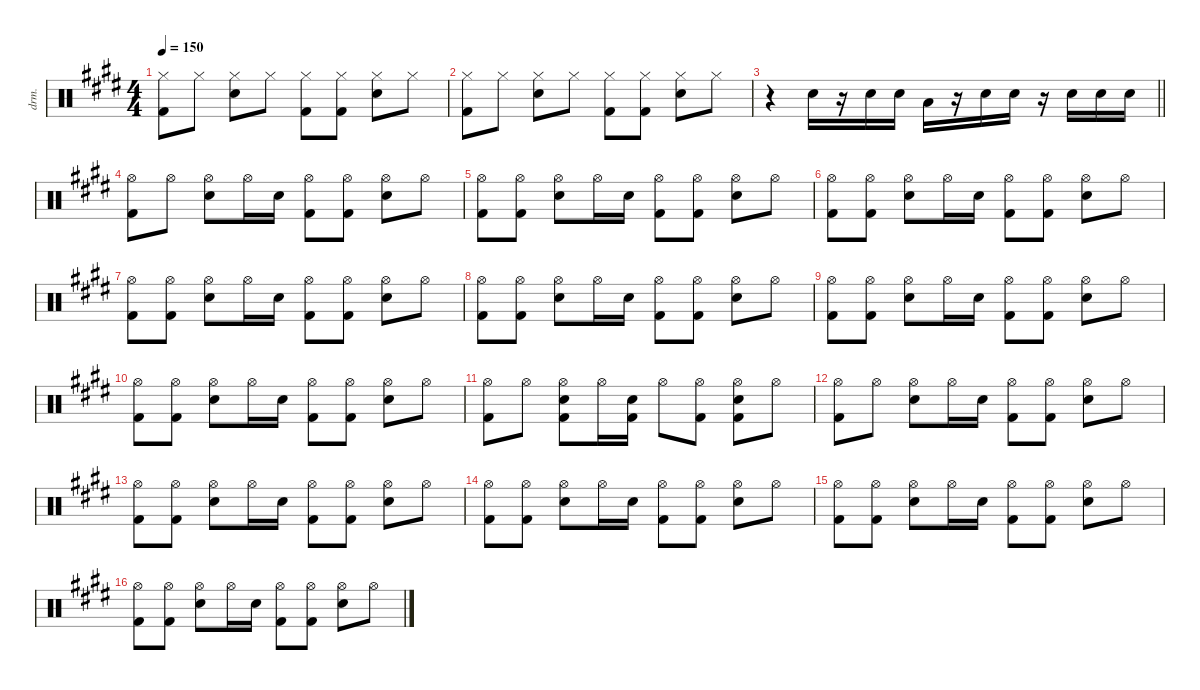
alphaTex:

\defaultSystemsLayout 4
\hideDynamics
\bracketExtendMode nobrackets
\track (" (Drums)" "drm.") {instrument percussion}
\staff {score}
\articulation defaults
\ts (4 4)
\tempo 150
\clef neutral
\ks c#minor
("Hi-Hat (closed)"{acc forcenatural} "Kick (hit) 2"{acc forcenatural}).8{dy f} "Hi-Hat (closed)"{acc forcenatural}.8 ("Hi-Hat (closed)"{acc forcenatural} "Snare (hit) 2"{acc forcenatural}).8 "Hi-Hat (closed)"{acc forcenatural}.8 ("Hi-Hat (closed)"{acc forcenatural} "Kick (hit) 2"{acc forcenatural}).8 ("Hi-Hat (closed)"{acc forcenatural} "Kick (hit) 2"{acc forcenatural}).8 ("Hi-Hat (closed)"{acc forcenatural} "Snare (hit) 2"{acc forcenatural}).8 "Hi-Hat (closed)"{acc forcenatural}.8 |
("Hi-Hat (closed)"{acc forcenatural} "Kick (hit) 2"{acc forcenatural}).8 "Hi-Hat (closed)"{acc forcenatural}.8 ("Hi-Hat (closed)"{acc forcenatural} "Snare (hit) 2"{acc forcenatural}).8 "Hi-Hat (closed)"{acc forcenatural}.8 ("Hi-Hat (closed)"{acc forcenatural} "Kick (hit) 2"{acc forcenatural}).8 ("Hi-Hat (closed)"{acc forcenatural} "Kick (hit) 2"{acc forcenatural}).8 ("Hi-Hat (closed)"{acc forcenatural} "Snare (hit) 2"{acc forcenatural}).8 "Hi-Hat (closed)"{acc forcenatural}.8 |
\barLineRight lightlight
r.4 "Snare (hit) 2"{acc forcenatural}.16 r.16 "Snare (hit) 2"{acc forcenatural}.16 "Snare (hit) 2"{acc forcenatural}.16 "Low Tom (hit)"{acc forcenatural}.16 r.16 "Snare (hit) 2"{acc forcenatural}.16 "Snare (hit) 2"{acc forcenatural}.16 r.16 "Snare (hit) 2"{acc forcenatural}.16 "Snare (hit) 2"{acc forcenatural}.16 "Snare (hit) 2"{acc forcenatural}.16 |
("Hi-Hat (open)"{acc forcenatural} "Kick (hit) 2"{acc forcenatural}).8 "Hi-Hat (open)"{acc forcenatural}.8 ("Hi-Hat (open)"{acc forcenatural} "Snare (hit) 2"{acc forcenatural}).8 "Hi-Hat (open)"{acc forcenatural}.16 "Snare (hit) 2"{acc forcenatural}.16{dy mf} ("Hi-Hat (open)"{acc forcenatural} "Kick (hit) 2"{acc forcenatural}).8{dy f} ("Hi-Hat (open)"{acc forcenatural} "Kick (hit) 2"{acc forcenatural}).8 ("Hi-Hat (open)"{acc forcenatural} "Snare (hit) 2"{acc forcenatural}).8 "Hi-Hat (open)"{acc forcenatural}.8 |
("Hi-Hat (open)"{acc forcenatural} "Kick (hit) 2"{acc forcenatural}).8 ("Hi-Hat (open)"{acc forcenatural} "Kick (hit) 2"{acc forcenatural}).8 ("Hi-Hat (open)"{acc forcenatural} "Snare (hit) 2"{acc forcenatural}).8 "Hi-Hat (open)"{acc forcenatural}.16 "Snare (hit) 2"{acc forcenatural}.16{dy mf} ("Hi-Hat (open)"{acc forcenatural} "Kick (hit) 2"{acc forcenatural}).8{dy f} ("Hi-Hat (open)"{acc forcenatural} "Kick (hit) 2"{acc forcenatural}).8 ("Hi-Hat (open)"{acc forcenatural} "Snare (hit) 2"{acc forcenatural}).8 "Hi-Hat (open)"{acc forcenatural}.8 |
("Hi-Hat (open)"{acc forcenatural} "Kick (hit) 2"{acc forcenatural}).8 ("Hi-Hat (open)"{acc forcenatural} "Kick (hit) 2"{acc forcenatural}).8 ("Hi-Hat (open)"{acc forcenatural} "Snare (hit) 2"{acc forcenatural}).8 "Hi-Hat (open)"{acc forcenatural}.16 "Snare (hit) 2"{acc forcenatural}.16{dy mf} ("Hi-Hat (open)"{acc forcenatural} "Kick (hit) 2"{acc forcenatural}).8{dy f} ("Hi-Hat (open)"{acc forcenatural} "Kick (hit) 2"{acc forcenatural}).8 ("Hi-Hat (open)"{acc forcenatural} "Snare (hit) 2"{acc forcenatural}).8 "Hi-Hat (open)"{acc forcenatural}.8 |
("Hi-Hat (open)"{acc forcenatural} "Kick (hit) 2"{acc forcenatural}).8 ("Hi-Hat (open)"{acc forcenatural} "Kick (hit) 2"{acc forcenatural}).8 ("Hi-Hat (open)"{acc forcenatural} "Snare (hit) 2"{acc forcenatural}).8 "Hi-Hat (open)"{acc forcenatural}.16 "Snare (hit) 2"{acc forcenatural}.16{dy mf} ("Hi-Hat (open)"{acc forcenatural} "Kick (hit) 2"{acc forcenatural}).8{dy f} ("Hi-Hat (open)"{acc forcenatural} "Kick (hit) 2"{acc forcenatural}).8 ("Hi-Hat (open)"{acc forcenatural} "Snare (hit) 2"{acc forcenatural}).8 "Hi-Hat (open)"{acc forcenatural}.8 |
("Hi-Hat (open)"{acc forcenatural} "Kick (hit) 2"{acc forcenatural}).8 ("Hi-Hat (open)"{acc forcenatural} "Kick (hit) 2"{acc forcenatural}).8 ("Hi-Hat (open)"{acc forcenatural} "Snare (hit) 2"{acc forcenatural}).8 "Hi-Hat (open)"{acc forcenatural}.16 "Snare (hit) 2"{acc forcenatural}.16{dy mf} ("Hi-Hat (open)"{acc forcenatural} "Kick (hit) 2"{acc forcenatural}).8{dy f} ("Hi-Hat (open)"{acc forcenatural} "Kick (hit) 2"{acc forcenatural}).8 ("Hi-Hat (open)"{acc forcenatural} "Snare (hit) 2"{acc forcenatural}).8 "Hi-Hat (open)"{acc forcenatural}.8 |
("Hi-Hat (open)"{acc forcenatural} "Kick (hit) 2"{acc forcenatural}).8 ("Hi-Hat (open)"{acc forcenatural} "Kick (hit) 2"{acc forcenatural}).8 ("Hi-Hat (open)"{acc forcenatural} "Snare (hit) 2"{acc forcenatural}).8 "Hi-Hat (open)"{acc forcenatural}.16 "Snare (hit) 2"{acc forcenatural}.16{dy mf} ("Hi-Hat (open)"{acc forcenatural} "Kick (hit) 2"{acc forcenatural}).8{dy f} ("Hi-Hat (open)"{acc forcenatural} "Kick (hit) 2"{acc forcenatural}).8 ("Hi-Hat (open)"{acc forcenatural} "Snare (hit) 2"{acc forcenatural}).8 "Hi-Hat (open)"{acc forcenatural}.8 |
("Hi-Hat (open)"{acc forcenatural} "Kick (hit) 2"{acc forcenatural}).8 ("Hi-Hat (open)"{acc forcenatural} "Kick (hit) 2"{acc forcenatural}).8 ("Hi-Hat (open)"{acc forcenatural} "Snare (hit) 2"{acc forcenatural}).8 "Hi-Hat (open)"{acc forcenatural}.16 "Snare (hit) 2"{acc forcenatural}.16{dy mf} ("Hi-Hat (open)"{acc forcenatural} "Kick (hit) 2"{acc forcenatural}).8{dy f} ("Hi-Hat (open)"{acc forcenatural} "Kick (hit) 2"{acc forcenatural}).8 ("Hi-Hat (open)"{acc forcenatural} "Snare (hit) 2"{acc forcenatural}).8 "Hi-Hat (open)"{acc forcenatural}.8 |
("Hi-Hat (open)"{acc forcenatural} "Kick (hit) 2"{acc forcenatural}).8 "Hi-Hat (open)"{acc forcenatural}.8 ("Hi-Hat (open)"{acc forcenatural} "Snare (hit) 2"{acc forcenatural} "Kick (hit) 2"{acc forcenatural}).8 "Hi-Hat (open)"{acc forcenatural}.16 ("Snare (hit) 2"{acc forcenatural} "Kick (hit) 2"{acc forcenatural}).16{dy mf} "Hi-Hat (open)"{acc forcenatural}.8{dy f} ("Hi-Hat (open)"{acc forcenatural} "Kick (hit) 2"{acc forcenatural}).8 ("Hi-Hat (open)"{acc forcenatural} "Snare (hit) 2"{acc forcenatural} "Kick (hit) 2"{acc forcenatural}).8 "Hi-Hat (open)"{acc forcenatural}.8 |
("Hi-Hat (open)"{acc forcenatural} "Kick (hit) 2"{acc forcenatural}).8 "Hi-Hat (open)"{acc forcenatural}.8 ("Hi-Hat (open)"{acc forcenatural} "Snare (hit) 2"{acc forcenatural}).8 "Hi-Hat (open)"{acc forcenatural}.16 "Snare (hit) 2"{acc forcenatural}.16{dy mf} ("Hi-Hat (open)"{acc forcenatural} "Kick (hit) 2"{acc forcenatural}).8{dy f} ("Hi-Hat (open)"{acc forcenatural} "Kick (hit) 2"{acc forcenatural}).8 ("Hi-Hat (open)"{acc forcenatural} "Snare (hit) 2"{acc forcenatural}).8 "Hi-Hat (open)"{acc forcenatural}.8 |
("Hi-Hat (open)"{acc forcenatural} "Kick (hit) 2"{acc forcenatural}).8 ("Hi-Hat (open)"{acc forcenatural} "Kick (hit) 2"{acc forcenatural}).8 ("Hi-Hat (open)"{acc forcenatural} "Snare (hit) 2"{acc forcenatural}).8 "Hi-Hat (open)"{acc forcenatural}.16 "Snare (hit) 2"{acc forcenatural}.16{dy mf} ("Hi-Hat (open)"{acc forcenatural} "Kick (hit) 2"{acc forcenatural}).8{dy f} ("Hi-Hat (open)"{acc forcenatural} "Kick (hit) 2"{acc forcenatural}).8 ("Hi-Hat (open)"{acc forcenatural} "Snare (hit) 2"{acc forcenatural}).8 "Hi-Hat (open)"{acc forcenatural}.8 |
("Hi-Hat (open)"{acc forcenatural} "Kick (hit) 2"{acc forcenatural}).8 ("Hi-Hat (open)"{acc forcenatural} "Kick (hit) 2"{acc forcenatural}).8 ("Hi-Hat (open)"{acc forcenatural} "Snare (hit) 2"{acc forcenatural}).8 "Hi-Hat (open)"{acc forcenatural}.16 "Snare (hit) 2"{acc forcenatural}.16{dy mf} ("Hi-Hat (open)"{acc forcenatural} "Kick (hit) 2"{acc forcenatural}).8{dy f} ("Hi-Hat (open)"{acc forcenatural} "Kick (hit) 2"{acc forcenatural}).8 ("Hi-Hat (open)"{acc forcenatural} "Snare (hit) 2"{acc forcenatural}).8 "Hi-Hat (open)"{acc forcenatural}.8 |
("Hi-Hat (open)"{acc forcenatural} "Kick (hit) 2"{acc forcenatural}).8 ("Hi-Hat (open)"{acc forcenatural} "Kick (hit) 2"{acc forcenatural}).8 ("Hi-Hat (open)"{acc forcenatural} "Snare (hit) 2"{acc forcenatural}).8 "Hi-Hat (open)"{acc forcenatural}.16 "Snare (hit) 2"{acc forcenatural}.16{dy mf} ("Hi-Hat (open)"{acc forcenatural} "Kick (hit) 2"{acc forcenatural}).8{dy f} ("Hi-Hat (open)"{acc forcenatural} "Kick (hit) 2"{acc forcenatural}).8 ("Hi-Hat (open)"{acc forcenatural} "Snare (hit) 2"{acc forcenatural}).8 "Hi-Hat (open)"{acc forcenatural}.8 |
("Hi-Hat (open)"{acc forcenatural} "Kick (hit) 2"{acc forcenatural}).8 ("Hi-Hat (open)"{acc forcenatural} "Kick (hit) 2"{acc forcenatural}).8 ("Hi-Hat (open)"{acc forcenatural} "Snare (hit) 2"{acc forcenatural}).8 "Hi-Hat (open)"{acc forcenatural}.16 "Snare (hit) 2"{acc forcenatural}.16{dy mf} ("Hi-Hat (open)"{acc forcenatural} "Kick (hit) 2"{acc forcenatural}).8{dy f} ("Hi-Hat (open)"{acc forcenatural} "Kick (hit) 2"{acc forcenatural}).8 ("Hi-Hat (open)"{acc forcenatural} "Snare (hit) 2"{acc forcenatural}).8 "Hi-Hat (open)"{acc forcenatural}.8
